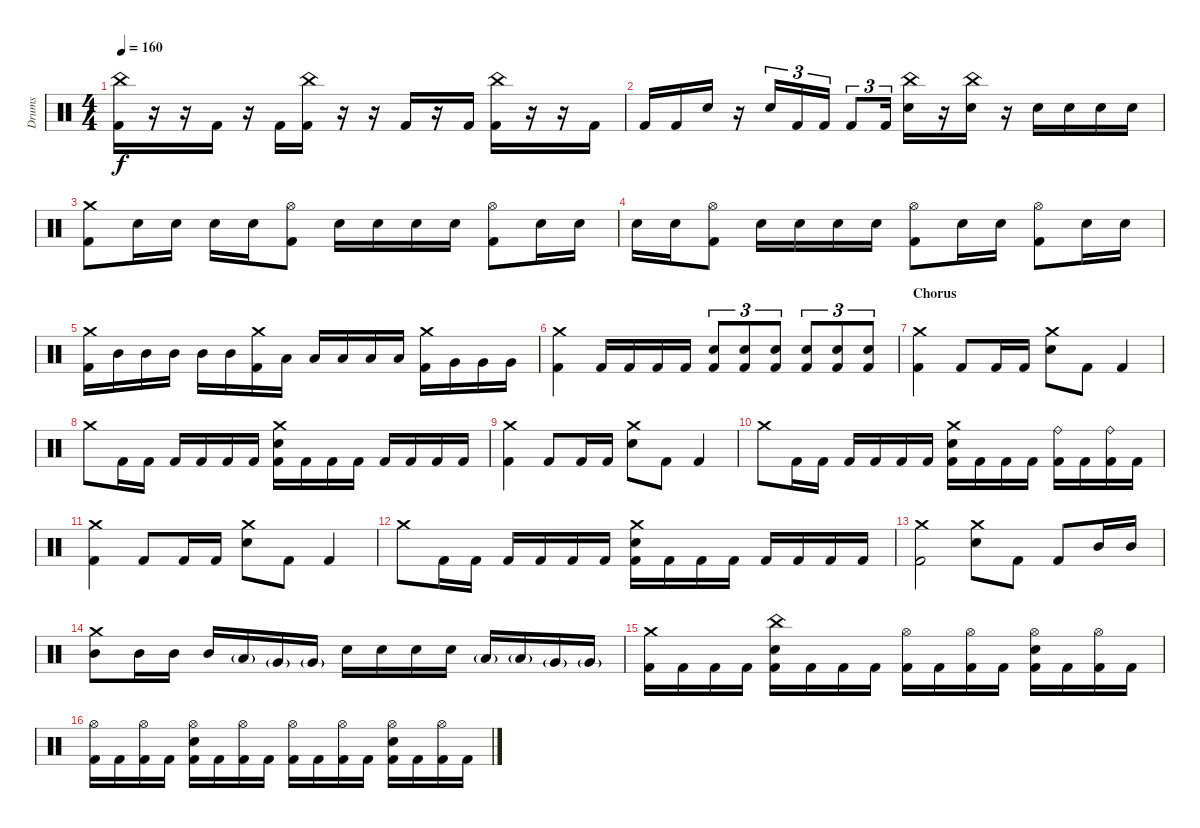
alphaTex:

\track ("Drums" "Drums") {instrument percussion}
\staff {score}
\articulation defaults
\ts (4 4)
\section ("" "")
\tempo 160
\clef neutral
\ks c
("China (hit)" "Kick (hit) 2").16{dy f} r.16 r.16 "Kick (hit) 2".16 r.16 "Kick (hit) 2".16 ("China (hit)" "Kick (hit) 2").16 r.16 r.16 "Kick (hit) 2".16 r.16 "Kick (hit) 2".16 ("China (hit)" "Kick (hit) 2").16 r.16 r.16 "Kick (hit) 2".16 |
"Kick (hit) 2".16 "Kick (hit) 2".16 "Snare (hit) 2".16 r.16 "Snare (hit) 2".16{tu (3 2)} "Kick (hit) 2".16{tu (3 2)} "Kick (hit) 2".16{tu (3 2)} "Kick (hit) 2".8{tu (3 2)} "Kick (hit) 2".16{tu (3 2)} ("China (hit)" "Snare (hit) 2").16 r.16 ("China (hit)" "Snare (hit) 2").16 r.16 "Snare (hit) 2".16 "Snare (hit) 2".16 "Snare (hit) 2".16 "Snare (hit) 2".16 |
("Crash medium (hit)" "Kick (hit) 2").8 "Snare (hit) 2".16 "Snare (hit) 2".16 "Snare (hit) 2".16 "Snare (hit) 2".16 ("Hi-Hat (open)" "Kick (hit) 2").8 "Snare (hit) 2".16 "Snare (hit) 2".16 "Snare (hit) 2".16 "Snare (hit) 2".16 ("Hi-Hat (open)" "Kick (hit) 2").8 "Snare (hit) 2".16 "Snare (hit) 2".16 |
"Snare (hit) 2".16 "Snare (hit) 2".16 ("Hi-Hat (open)" "Kick (hit) 2").8 "Snare (hit) 2".16 "Snare (hit) 2".16 "Snare (hit) 2".16 "Snare (hit) 2".16 ("Hi-Hat (open)" "Kick (hit) 2").8 "Snare (hit) 2".16 "Snare (hit) 2".16 ("Hi-Hat (open)" "Kick (hit) 2").8 "Snare (hit) 2".16 "Snare (hit) 2".16 |
("Crash medium (hit)" "Kick (hit) 2").16 "Mid Tom (hit)".16 "Mid Tom (hit)".16 "Mid Tom (hit)".16 "Mid Tom (hit)".16 "Mid Tom (hit)".16 ("Crash medium (hit)" "Kick (hit) 2").16 "Low Tom (hit)".16 "Low Tom (hit)".16 "Low Tom (hit)".16 "Low Tom (hit)".16 "Low Tom (hit)".16 ("Crash medium (hit)" "Kick (hit) 2").16 "Very Low Tom (hit)".16 "Very Low Tom (hit)".16 "Very Low Tom (hit)".16 |
("Crash medium (hit)" "Kick (hit) 2").4 "Kick (hit) 2".16 "Kick (hit) 2".16 "Kick (hit) 2".16 "Kick (hit) 2".16 ("Snare (hit) 2" "Kick (hit) 2").8{tu (3 2)} ("Snare (hit) 2" "Kick (hit) 2").8{tu (3 2)} ("Snare (hit) 2" "Kick (hit) 2").8{tu (3 2)} ("Snare (hit) 2" "Kick (hit) 2").8{tu (3 2)} ("Snare (hit) 2" "Kick (hit) 2").8{tu (3 2)} ("Snare (hit) 2" "Kick (hit) 2").8{tu (3 2)} |
\section ("" "Chorus")
("Crash medium (hit)" "Kick (hit) 2").4 "Kick (hit) 2".8 "Kick (hit) 2".16 "Kick (hit) 2".16 ("Crash medium (hit)" "Snare (hit) 2").8 "Kick (hit) 2".8 "Kick (hit) 2".4 |
"Crash medium (hit)".8 "Kick (hit) 2".16 "Kick (hit) 2".16 "Kick (hit) 2".16 "Kick (hit) 2".16 "Kick (hit) 2".16 "Kick (hit) 2".16 ("Crash medium (hit)" "Snare (hit) 2" "Kick (hit) 2").16 "Kick (hit) 2".16 "Kick (hit) 2".16 "Kick (hit) 2".16 "Kick (hit) 2".16 "Kick (hit) 2".16 "Kick (hit) 2".16 "Kick (hit) 2".16 |
("Crash medium (hit)" "Kick (hit) 2").4 "Kick (hit) 2".8 "Kick (hit) 2".16 "Kick (hit) 2".16 ("Crash medium (hit)" "Snare (hit) 2").8 "Kick (hit) 2".8 "Kick (hit) 2".4 |
"Crash medium (hit)".8 "Kick (hit) 2".16 "Kick (hit) 2".16 "Kick (hit) 2".16 "Kick (hit) 2".16 "Kick (hit) 2".16 "Kick (hit) 2".16 ("Crash medium (hit)" "Snare (hit) 2" "Kick (hit) 2").16 "Kick (hit) 2".16 "Kick (hit) 2".16 "Kick (hit) 2".16 ("Ride (bell)" "Kick (hit) 2").16 "Kick (hit) 2".16 ("Ride (bell)" "Kick (hit) 2").16 "Kick (hit) 2".16 |
("Crash medium (hit)" "Kick (hit) 2").4 "Kick (hit) 2".8 "Kick (hit) 2".16 "Kick (hit) 2".16 ("Crash medium (hit)" "Snare (hit) 2").8 "Kick (hit) 2".8 "Kick (hit) 2".4 |
"Crash medium (hit)".8 "Kick (hit) 2".16 "Kick (hit) 2".16 "Kick (hit) 2".16 "Kick (hit) 2".16 "Kick (hit) 2".16 "Kick (hit) 2".16 ("Crash medium (hit)" "Snare (hit) 2" "Kick (hit) 2").16 "Kick (hit) 2".16 "Kick (hit) 2".16 "Kick (hit) 2".16 "Kick (hit) 2".16 "Kick (hit) 2".16 "Kick (hit) 2".16 "Kick (hit) 2".16 |
("Crash medium (hit)" "Kick (hit) 2").2 ("Crash medium (hit)" "Snare (hit) 2").8 "Kick (hit) 2".8 "Kick (hit) 2".8 "Mid Tom (hit)".16 "Mid Tom (hit)".16 |
("Crash medium (hit)" "Mid Tom (hit)").8 "Mid Tom (hit)".16 "Mid Tom (hit)".16 "Mid Tom (hit)".16 "Low Tom (hit)"{g}.16 "Very Low Tom (hit)"{g}.16 "Very Low Tom (hit)"{g}.16 "Snare (hit) 2".16 "Snare (hit) 2".16 "Snare (hit) 2".16 "Snare (hit) 2".16 "Low Tom (hit)"{g}.16 "Low Tom (hit)"{g}.16 "Very Low Tom (hit)"{g}.16 "Very Low Tom (hit)"{g}.16 |
("Crash medium (hit)" "Kick (hit) 2").16 "Kick (hit) 2".16 "Kick (hit) 2".16 "Kick (hit) 2".16 ("China (hit)" "Snare (hit) 2" "Kick (hit) 2").16 "Kick (hit) 2".16 "Kick (hit) 2".16 "Kick (hit) 2".16 ("Hi-Hat (open)" "Kick (hit) 2").16 "Kick (hit) 2".16 ("Hi-Hat (open)" "Kick (hit) 2").16 "Kick (hit) 2".16 ("Hi-Hat (open)" "Snare (hit) 2" "Kick (hit) 2").16 "Kick (hit) 2".16 ("Hi-Hat (open)" "Kick (hit) 2").16 "Kick (hit) 2".16 |
("Hi-Hat (open)" "Kick (hit) 2").16 "Kick (hit) 2".16 ("Hi-Hat (open)" "Kick (hit) 2").16 "Kick (hit) 2".16 ("Hi-Hat (open)" "Snare (hit) 2" "Kick (hit) 2").16 "Kick (hit) 2".16 ("Hi-Hat (open)" "Kick (hit) 2").16 "Kick (hit) 2".16 ("Hi-Hat (open)" "Kick (hit) 2").16 "Kick (hit) 2".16 ("Hi-Hat (open)" "Kick (hit) 2").16 "Kick (hit) 2".16 ("Hi-Hat (open)" "Snare (hit) 2" "Kick (hit) 2").16 "Kick (hit) 2".16 ("Hi-Hat (open)" "Kick (hit) 2").16 "Kick (hit) 2".16
